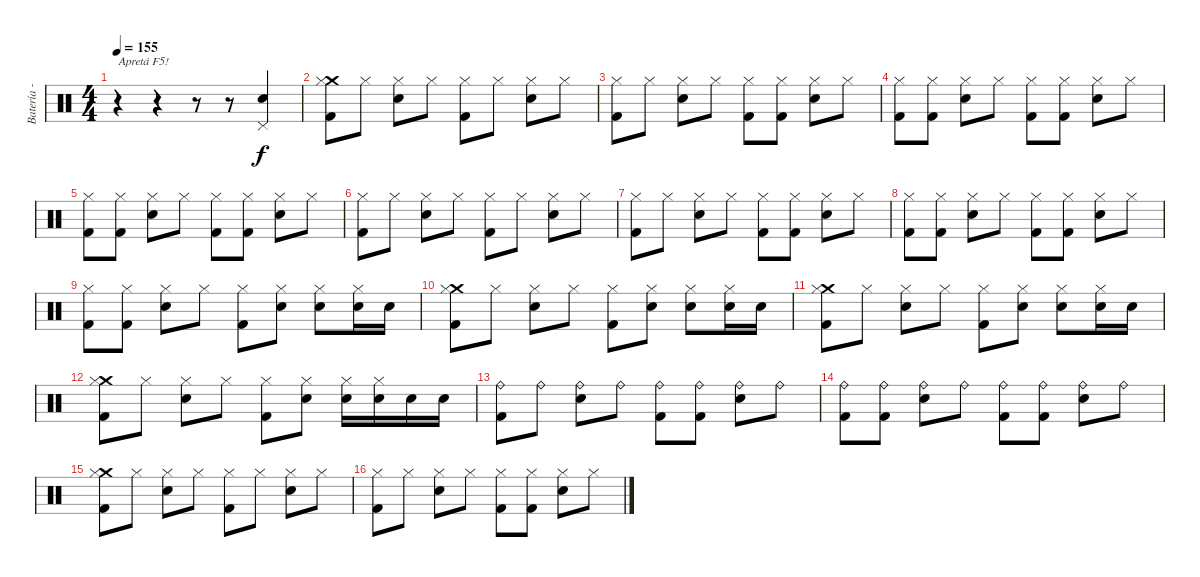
\track ("Batería - Edu" "Batería - ") {instrument percussion}
\staff {score}
\articulation defaults
\ts (4 4)
\tempo 155
\clef neutral
\ks c
r.4{txt "Apretá F5!" dy f} r.4 r.8 r.8 ("Pedal Hi-Hat (hit)" "Electric Snare (hit)").4 |
("Crash medium (hit)" "Kick (hit) 2" "Hi-Hat (closed)").8 "Hi-Hat (closed)".8 ("Electric Snare (hit)" "Hi-Hat (closed)").8 "Hi-Hat (closed)".8 ("Kick (hit) 2" "Hi-Hat (closed)").8 "Hi-Hat (closed)".8 ("Electric Snare (hit)" "Hi-Hat (closed)").8 "Hi-Hat (closed)".8 |
("Kick (hit) 2" "Hi-Hat (closed)").8 "Hi-Hat (closed)".8 ("Electric Snare (hit)" "Hi-Hat (closed)").8 "Hi-Hat (closed)".8 ("Kick (hit) 2" "Hi-Hat (closed)").8 ("Kick (hit) 2" "Hi-Hat (closed)").8 ("Electric Snare (hit)" "Hi-Hat (closed)").8 "Hi-Hat (closed)".8 |
("Kick (hit) 2" "Hi-Hat (closed)").8 ("Kick (hit) 2" "Hi-Hat (closed)").8 ("Electric Snare (hit)" "Hi-Hat (closed)").8 "Hi-Hat (closed)".8 ("Kick (hit) 2" "Hi-Hat (closed)").8 ("Kick (hit) 2" "Hi-Hat (closed)").8 ("Electric Snare (hit)" "Hi-Hat (closed)").8 "Hi-Hat (closed)".8 |
("Kick (hit) 2" "Hi-Hat (closed)").8 ("Kick (hit) 2" "Hi-Hat (closed)").8 ("Electric Snare (hit)" "Hi-Hat (closed)").8 "Hi-Hat (closed)".8 ("Kick (hit) 2" "Hi-Hat (closed)").8 ("Kick (hit) 2" "Hi-Hat (closed)").8 ("Electric Snare (hit)" "Hi-Hat (closed)").8 "Hi-Hat (closed)".8 |
("Kick (hit) 2" "Hi-Hat (closed)").8 "Hi-Hat (closed)".8 ("Electric Snare (hit)" "Hi-Hat (closed)").8 "Hi-Hat (closed)".8 ("Kick (hit) 2" "Hi-Hat (closed)").8 "Hi-Hat (closed)".8 ("Electric Snare (hit)" "Hi-Hat (closed)").8 "Hi-Hat (closed)".8 |
("Kick (hit) 2" "Hi-Hat (closed)").8 "Hi-Hat (closed)".8 ("Electric Snare (hit)" "Hi-Hat (closed)").8 "Hi-Hat (closed)".8 ("Kick (hit) 2" "Hi-Hat (closed)").8 ("Kick (hit) 2" "Hi-Hat (closed)").8 ("Electric Snare (hit)" "Hi-Hat (closed)").8 "Hi-Hat (closed)".8 |
("Kick (hit) 2" "Hi-Hat (closed)").8 ("Kick (hit) 2" "Hi-Hat (closed)").8 ("Electric Snare (hit)" "Hi-Hat (closed)").8 "Hi-Hat (closed)".8 ("Kick (hit) 2" "Hi-Hat (closed)").8 ("Kick (hit) 2" "Hi-Hat (closed)").8 ("Electric Snare (hit)" "Hi-Hat (closed)").8 "Hi-Hat (closed)".8 |
("Kick (hit) 2" "Hi-Hat (closed)").8 ("Kick (hit) 2" "Hi-Hat (closed)").8 ("Electric Snare (hit)" "Hi-Hat (closed)").8 "Hi-Hat (closed)".8 ("Kick (hit) 2" "Hi-Hat (closed)").8 ("Electric Snare (hit)" "Hi-Hat (closed)").8 ("Electric Snare (hit)" "Hi-Hat (closed)").8 ("Electric Snare (hit)" "Hi-Hat (closed)").16 "Snare (hit) 2".16 |
("Crash medium (hit)" "Kick (hit) 2" "Hi-Hat (closed)").8 "Hi-Hat (closed)".8 ("Electric Snare (hit)" "Hi-Hat (closed)").8 "Hi-Hat (closed)".8 ("Kick (hit) 2" "Hi-Hat (closed)").8 ("Electric Snare (hit)" "Hi-Hat (closed)").8 ("Electric Snare (hit)" "Hi-Hat (closed)").8 ("Electric Snare (hit)" "Hi-Hat (closed)").16 "Snare (hit) 2".16 |
("Crash medium (hit)" "Kick (hit) 2" "Hi-Hat (closed)").8 "Hi-Hat (closed)".8 ("Electric Snare (hit)" "Hi-Hat (closed)").8 "Hi-Hat (closed)".8 ("Kick (hit) 2" "Hi-Hat (closed)").8 ("Electric Snare (hit)" "Hi-Hat (closed)").8 ("Electric Snare (hit)" "Hi-Hat (closed)").8 ("Electric Snare (hit)" "Hi-Hat (closed)").16 "Snare (hit) 2".16 |
("Crash medium (hit)" "Kick (hit) 2" "Hi-Hat (closed)").8 "Hi-Hat (closed)".8 ("Electric Snare (hit)" "Hi-Hat (closed)").8 "Hi-Hat (closed)".8 ("Kick (hit) 2" "Hi-Hat (closed)").8 ("Electric Snare (hit)" "Hi-Hat (closed)").8 ("Electric Snare (hit)" "Hi-Hat (closed)").16 ("Snare (hit) 2" "Hi-Hat (closed)").16 "Electric Snare (hit)".16 "Snare (hit) 2".16 |
("Kick (hit) 2" "Ride (bell)").8 "Ride (bell)".8 ("Electric Snare (hit)" "Ride (bell)").8 "Ride (bell)".8 ("Kick (hit) 2" "Ride (bell)").8 ("Kick (hit) 2" "Ride (bell)").8 ("Electric Snare (hit)" "Ride (bell)").8 "Ride (bell)".8 |
("Kick (hit) 2" "Ride (bell)").8 ("Kick (hit) 2" "Ride (bell)").8 ("Electric Snare (hit)" "Ride (bell)").8 "Ride (bell)".8 ("Kick (hit) 2" "Ride (bell)").8 ("Kick (hit) 2" "Ride (bell)").8 ("Electric Snare (hit)" "Ride (bell)").8 "Ride (bell)".8 |
("Crash medium (hit)" "Kick (hit) 2" "Hi-Hat (closed)").8 "Hi-Hat (closed)".8 ("Electric Snare (hit)" "Hi-Hat (closed)").8 "Hi-Hat (closed)".8 ("Kick (hit) 2" "Hi-Hat (closed)").8 "Hi-Hat (closed)".8 ("Electric Snare (hit)" "Hi-Hat (closed)").8 "Hi-Hat (closed)".8 |
("Kick (hit) 2" "Hi-Hat (closed)").8 "Hi-Hat (closed)".8 ("Electric Snare (hit)" "Hi-Hat (closed)").8 "Hi-Hat (closed)".8 ("Kick (hit) 2" "Hi-Hat (closed)").8 ("Kick (hit) 2" "Hi-Hat (closed)").8 ("Electric Snare (hit)" "Hi-Hat (closed)").8 "Hi-Hat (closed)".8
